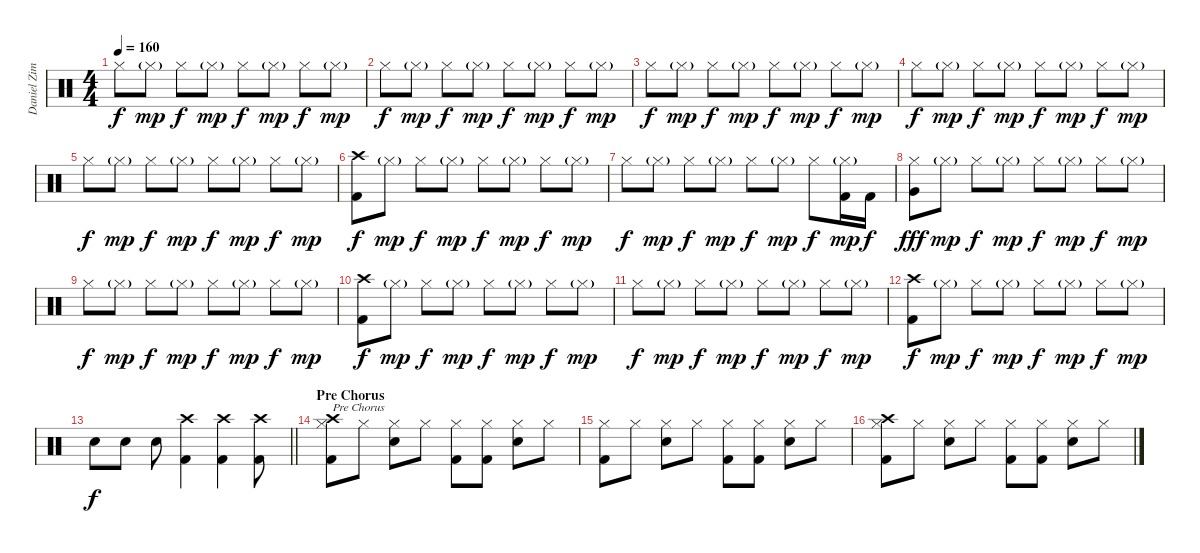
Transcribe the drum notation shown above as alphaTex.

\track ("Daniel Zimmermann" "Daniel Zim") {instrument percussion}
\staff {score}
\articulation defaults
\ts (4 4)
\tempo 160
\clef neutral
\ks c "Hi-Hat (closed)".8{dy f} "Hi-Hat (closed)"{g}.8{dy mp} "Hi-Hat (closed)".8{dy f} "Hi-Hat (closed)"{g}.8{dy mp} "Hi-Hat (closed)".8{dy f} "Hi-Hat (closed)"{g}.8{dy mp} "Hi-Hat (closed)".8{dy f} "Hi-Hat (closed)"{g}.8{dy mp}
|
"Hi-Hat (closed)".8{dy f} "Hi-Hat (closed)"{g}.8{dy mp} "Hi-Hat (closed)".8{dy f} "Hi-Hat (closed)"{g}.8{dy mp} "Hi-Hat (closed)".8{dy f} "Hi-Hat (closed)"{g}.8{dy mp} "Hi-Hat (closed)".8{dy f} "Hi-Hat (closed)"{g}.8{dy mp} |
"Hi-Hat (closed)".8{dy f} "Hi-Hat (closed)"{g}.8{dy mp} "Hi-Hat (closed)".8{dy f} "Hi-Hat (closed)"{g}.8{dy mp} "Hi-Hat (closed)".8{dy f} "Hi-Hat (closed)"{g}.8{dy mp} "Hi-Hat (closed)".8{dy f} "Hi-Hat (closed)"{g}.8{dy mp} |
"Hi-Hat (closed)".8{dy f} "Hi-Hat (closed)"{g}.8{dy mp} "Hi-Hat (closed)".8{dy f} "Hi-Hat (closed)"{g}.8{dy mp} "Hi-Hat (closed)".8{dy f} "Hi-Hat (closed)"{g}.8{dy mp} "Hi-Hat (closed)".8{dy f} "Hi-Hat (closed)"{g}.8{dy mp} |
"Hi-Hat (closed)".8{dy f} "Hi-Hat (closed)"{g}.8{dy mp} "Hi-Hat (closed)".8{dy f} "Hi-Hat (closed)"{g}.8{dy mp} "Hi-Hat (closed)".8{dy f} "Hi-Hat (closed)"{g}.8{dy mp} "Hi-Hat (closed)".8{dy f} "Hi-Hat (closed)"{g}.8{dy mp} |
("Kick (hit) 2" "Crash high (hit)").8{dy f} "Hi-Hat (closed)"{g}.8{dy mp} "Hi-Hat (closed)".8{dy f} "Hi-Hat (closed)"{g}.8{dy mp} "Hi-Hat (closed)".8{dy f} "Hi-Hat (closed)"{g}.8{dy mp} "Hi-Hat (closed)".8{dy f} "Hi-Hat (closed)"{g}.8{dy mp} |
"Hi-Hat (closed)".8{dy f} "Hi-Hat (closed)"{g}.8{dy mp} "Hi-Hat (closed)".8{dy f} "Hi-Hat (closed)"{g}.8{dy mp} "Hi-Hat (closed)".8{dy f} "Hi-Hat (closed)"{g}.8{dy mp} "Hi-Hat (closed)".8{dy f} ("Hi-Hat (closed)"{g} "Kick (hit) 2").16{dy mp} "Kick (hit) 2".16{dy f} |
("Hi-Hat (closed)" "Very Low Tom (hit)").8{dy fff} "Hi-Hat (closed)"{g}.8{dy mp} "Hi-Hat (closed)".8{dy f} "Hi-Hat (closed)"{g}.8{dy mp} "Hi-Hat (closed)".8{dy f} "Hi-Hat (closed)"{g}.8{dy mp} "Hi-Hat (closed)".8{dy f} "Hi-Hat (closed)"{g}.8{dy mp} |
"Hi-Hat (closed)".8{dy f} "Hi-Hat (closed)"{g}.8{dy mp} "Hi-Hat (closed)".8{dy f} "Hi-Hat (closed)"{g}.8{dy mp} "Hi-Hat (closed)".8{dy f} "Hi-Hat (closed)"{g}.8{dy mp} "Hi-Hat (closed)".8{dy f} "Hi-Hat (closed)"{g}.8{dy mp} |
("Kick (hit) 2" "Crash high (hit)").8{dy f} "Hi-Hat (closed)"{g}.8{dy mp} "Hi-Hat (closed)".8{dy f} "Hi-Hat (closed)"{g}.8{dy mp} "Hi-Hat (closed)".8{dy f} "Hi-Hat (closed)"{g}.8{dy mp} "Hi-Hat (closed)".8{dy f} "Hi-Hat (closed)"{g}.8{dy mp} |
"Hi-Hat (closed)".8{dy f} "Hi-Hat (closed)"{g}.8{dy mp} "Hi-Hat (closed)".8{dy f} "Hi-Hat (closed)"{g}.8{dy mp} "Hi-Hat (closed)".8{dy f} "Hi-Hat (closed)"{g}.8{dy mp} "Hi-Hat (closed)".8{dy f} "Hi-Hat (closed)"{g}.8{dy mp} |
("Kick (hit) 2" "Crash high (hit)").8{dy f} "Hi-Hat (closed)"{g}.8{dy mp} "Hi-Hat (closed)".8{dy f} "Hi-Hat (closed)"{g}.8{dy mp} "Hi-Hat (closed)".8{dy f} "Hi-Hat (closed)"{g}.8{dy mp} "Hi-Hat (closed)".8{dy f} "Hi-Hat (closed)"{g}.8{dy mp} |
\barLineRight lightlight "Snare (hit) 2".8{dy f} "Snare (hit) 2".8 "Snare (hit) 2".8
("Kick (hit) 2" "Crash high (hit)").4 ("Kick (hit) 2" "Crash high (hit)").4 ("Kick (hit) 2" "Crash high (hit)").8 |
\section ("" "Pre Chorus")
("Hi-Hat (closed)" "Kick (hit) 2" "Crash high (hit)").8{txt "Pre Chorus"} "Hi-Hat (closed)".8 ("Hi-Hat (closed)" "Snare (hit) 2").8 "Hi-Hat (closed)".8 ("Hi-Hat (closed)" "Kick (hit) 2").8 ("Hi-Hat (closed)" "Kick (hit) 2").8 ("Hi-Hat (closed)" "Snare (hit) 2").8 "Hi-Hat (closed)".8 |
("Hi-Hat (closed)" "Kick (hit) 2").8 "Hi-Hat (closed)".8 ("Hi-Hat (closed)" "Snare (hit) 2").8 "Hi-Hat (closed)".8 ("Hi-Hat (closed)" "Kick (hit) 2").8 ("Hi-Hat (closed)" "Kick (hit) 2").8 ("Hi-Hat (closed)" "Snare (hit) 2").8 "Hi-Hat (closed)".8 |
("Hi-Hat (closed)" "Kick (hit) 2" "Crash high (hit)").8 "Hi-Hat (closed)".8 ("Hi-Hat (closed)" "Snare (hit) 2").8 "Hi-Hat (closed)".8 ("Hi-Hat (closed)" "Kick (hit) 2").8 ("Hi-Hat (closed)" "Kick (hit) 2").8 ("Hi-Hat (closed)" "Snare (hit) 2").8 "Hi-Hat (closed)".8
